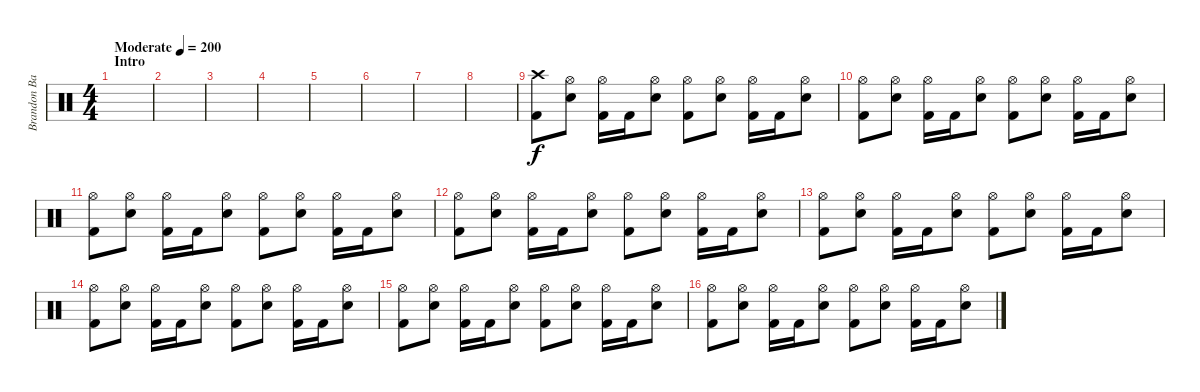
\track ("Brandon Barnes - Drums" "Brandon Ba") {instrument percussion}
\staff {score}
\articulation defaults
\ts (4 4)
\section ("" "Intro")
\tempo (200 "Moderate")
\clef neutral
\ks c
|
|
|
|
|
|
|
|
("Crash high (hit)" "Kick (hit) 2").8 ("Snare (hit) 2" "Hi-Hat (open)").8 ("Kick (hit) 2" "Hi-Hat (open)").16 "Kick (hit) 2".16 ("Snare (hit) 2" "Hi-Hat (open)").8 ("Kick (hit) 2" "Hi-Hat (open)").8 ("Snare (hit) 2" "Hi-Hat (open)").8 ("Kick (hit) 2" "Hi-Hat (open)").16 "Kick (hit) 2".16 ("Snare (hit) 2" "Hi-Hat (open)").8 |
("Kick (hit) 2" "Hi-Hat (open)").8 ("Snare (hit) 2" "Hi-Hat (open)").8 ("Kick (hit) 2" "Hi-Hat (open)").16 "Kick (hit) 2".16 ("Snare (hit) 2" "Hi-Hat (open)").8 ("Kick (hit) 2" "Hi-Hat (open)").8 ("Snare (hit) 2" "Hi-Hat (open)").8 ("Kick (hit) 2" "Hi-Hat (open)").16 "Kick (hit) 2".16 ("Snare (hit) 2" "Hi-Hat (open)").8 |
("Kick (hit) 2" "Hi-Hat (open)").8 ("Snare (hit) 2" "Hi-Hat (open)").8 ("Kick (hit) 2" "Hi-Hat (open)").16 "Kick (hit) 2".16 ("Snare (hit) 2" "Hi-Hat (open)").8 ("Kick (hit) 2" "Hi-Hat (open)").8 ("Snare (hit) 2" "Hi-Hat (open)").8 ("Kick (hit) 2" "Hi-Hat (open)").16 "Kick (hit) 2".16 ("Snare (hit) 2" "Hi-Hat (open)").8 |
("Kick (hit) 2" "Hi-Hat (open)").8 ("Snare (hit) 2" "Hi-Hat (open)").8 ("Kick (hit) 2" "Hi-Hat (open)").16 "Kick (hit) 2".16 ("Snare (hit) 2" "Hi-Hat (open)").8 ("Kick (hit) 2" "Hi-Hat (open)").8 ("Snare (hit) 2" "Hi-Hat (open)").8 ("Kick (hit) 2" "Hi-Hat (open)").16 "Kick (hit) 2".16 ("Snare (hit) 2" "Hi-Hat (open)").8 |
("Kick (hit) 2" "Hi-Hat (open)").8 ("Snare (hit) 2" "Hi-Hat (open)").8 ("Kick (hit) 2" "Hi-Hat (open)").16 "Kick (hit) 2".16 ("Snare (hit) 2" "Hi-Hat (open)").8 ("Kick (hit) 2" "Hi-Hat (open)").8 ("Snare (hit) 2" "Hi-Hat (open)").8 ("Kick (hit) 2" "Hi-Hat (open)").16 "Kick (hit) 2".16 ("Snare (hit) 2" "Hi-Hat (open)").8 |
("Kick (hit) 2" "Hi-Hat (open)").8 ("Snare (hit) 2" "Hi-Hat (open)").8 ("Kick (hit) 2" "Hi-Hat (open)").16 "Kick (hit) 2".16 ("Snare (hit) 2" "Hi-Hat (open)").8 ("Kick (hit) 2" "Hi-Hat (open)").8 ("Snare (hit) 2" "Hi-Hat (open)").8 ("Kick (hit) 2" "Hi-Hat (open)").16 "Kick (hit) 2".16 ("Snare (hit) 2" "Hi-Hat (open)").8 |
("Kick (hit) 2" "Hi-Hat (open)").8 ("Snare (hit) 2" "Hi-Hat (open)").8 ("Kick (hit) 2" "Hi-Hat (open)").16 "Kick (hit) 2".16 ("Snare (hit) 2" "Hi-Hat (open)").8 ("Kick (hit) 2" "Hi-Hat (open)").8 ("Snare (hit) 2" "Hi-Hat (open)").8 ("Kick (hit) 2" "Hi-Hat (open)").16 "Kick (hit) 2".16 ("Snare (hit) 2" "Hi-Hat (open)").8 |
("Kick (hit) 2" "Hi-Hat (open)").8 ("Snare (hit) 2" "Hi-Hat (open)").8 ("Kick (hit) 2" "Hi-Hat (open)").16 "Kick (hit) 2".16 ("Snare (hit) 2" "Hi-Hat (open)").8 ("Kick (hit) 2" "Hi-Hat (open)").8 ("Snare (hit) 2" "Hi-Hat (open)").8 ("Kick (hit) 2" "Hi-Hat (open)").16 "Kick (hit) 2".16 ("Snare (hit) 2" "Hi-Hat (open)").8
